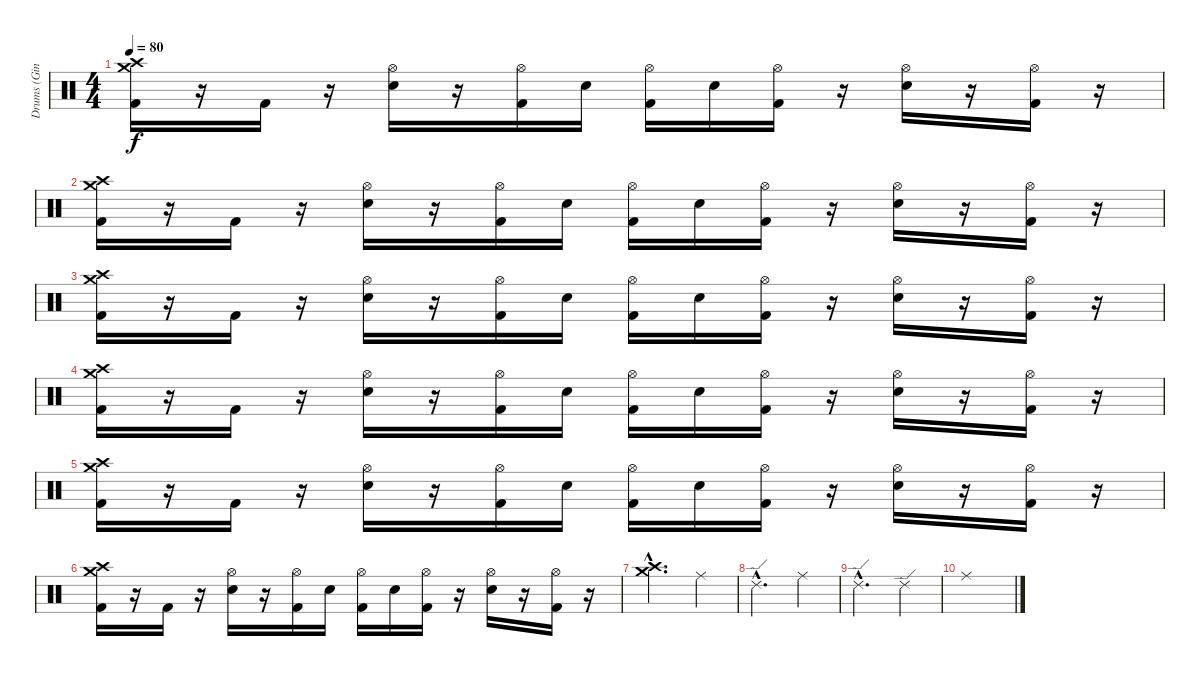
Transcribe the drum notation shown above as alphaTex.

\track ("Drums (Ginger Fish)" "Drums (Gin") {instrument percussion}
\staff {score}
\articulation defaults
\ts (4 4)
\tempo 80
\clef neutral
\ks c
("Crash high (hit)" "Crash medium (hit)" "Kick (hit) 2").16{dy f} r.16 "Kick (hit) 2".16 r.16 ("Hi-Hat (open)" "Electric Snare (hit)").16 r.16 ("Hi-Hat (open)" "Kick (hit) 2").16 "Electric Snare (hit)".16 ("Hi-Hat (open)" "Kick (hit) 2").16 "Electric Snare (hit)".16 ("Hi-Hat (open)" "Kick (hit) 2").16 r.16 ("Hi-Hat (open)" "Electric Snare (hit)").16 r.16 ("Hi-Hat (open)" "Kick (hit) 2").16 r.16 |
("Crash high (hit)" "Crash medium (hit)" "Kick (hit) 2").16 r.16 "Kick (hit) 2".16 r.16 ("Hi-Hat (open)" "Electric Snare (hit)").16 r.16 ("Hi-Hat (open)" "Kick (hit) 2").16 "Electric Snare (hit)".16 ("Hi-Hat (open)" "Kick (hit) 2").16 "Electric Snare (hit)".16 ("Hi-Hat (open)" "Kick (hit) 2").16 r.16 ("Hi-Hat (open)" "Electric Snare (hit)").16 r.16 ("Hi-Hat (open)" "Kick (hit) 2").16 r.16 |
("Crash high (hit)" "Crash medium (hit)" "Kick (hit) 2").16 r.16 "Kick (hit) 2".16 r.16 ("Hi-Hat (open)" "Electric Snare (hit)").16 r.16 ("Hi-Hat (open)" "Kick (hit) 2").16 "Electric Snare (hit)".16 ("Hi-Hat (open)" "Kick (hit) 2").16 "Electric Snare (hit)".16 ("Hi-Hat (open)" "Kick (hit) 2").16 r.16 ("Hi-Hat (open)" "Electric Snare (hit)").16 r.16 ("Hi-Hat (open)" "Kick (hit) 2").16 r.16 |
("Crash high (hit)" "Crash medium (hit)" "Kick (hit) 2").16 r.16 "Kick (hit) 2".16 r.16 ("Hi-Hat (open)" "Electric Snare (hit)").16 r.16 ("Hi-Hat (open)" "Kick (hit) 2").16 "Electric Snare (hit)".16 ("Hi-Hat (open)" "Kick (hit) 2").16 "Electric Snare (hit)".16 ("Hi-Hat (open)" "Kick (hit) 2").16 r.16 ("Hi-Hat (open)" "Electric Snare (hit)").16 r.16 ("Hi-Hat (open)" "Kick (hit) 2").16 r.16 |
("Crash high (hit)" "Crash medium (hit)" "Kick (hit) 2").16 r.16 "Kick (hit) 2".16 r.16 ("Hi-Hat (open)" "Electric Snare (hit)").16 r.16 ("Hi-Hat (open)" "Kick (hit) 2").16 "Electric Snare (hit)".16 ("Hi-Hat (open)" "Kick (hit) 2").16 "Electric Snare (hit)".16 ("Hi-Hat (open)" "Kick (hit) 2").16 r.16 ("Hi-Hat (open)" "Electric Snare (hit)").16 r.16 ("Hi-Hat (open)" "Kick (hit) 2").16 r.16 |
("Crash high (hit)" "Crash medium (hit)" "Kick (hit) 2").16 r.16 "Kick (hit) 2".16 r.16 ("Hi-Hat (open)" "Electric Snare (hit)").16 r.16 ("Hi-Hat (open)" "Kick (hit) 2").16 "Electric Snare (hit)".16 ("Hi-Hat (open)" "Kick (hit) 2").16 "Electric Snare (hit)".16 ("Hi-Hat (open)" "Kick (hit) 2").16 r.16 ("Hi-Hat (open)" "Electric Snare (hit)").16 r.16 ("Hi-Hat (open)" "Kick (hit) 2").16 r.16 |
("Crash high (hit)"{hac} "Crash medium (hit)"{hac}).2{d} "Ride (middle)".4 |
"Ride (edge) 2"{hac}.2{d} "Ride (middle)".4 |
"Ride (edge) 2"{hac}.2{d} "Ride (edge) 2".4 |
"Ride (middle)".1
